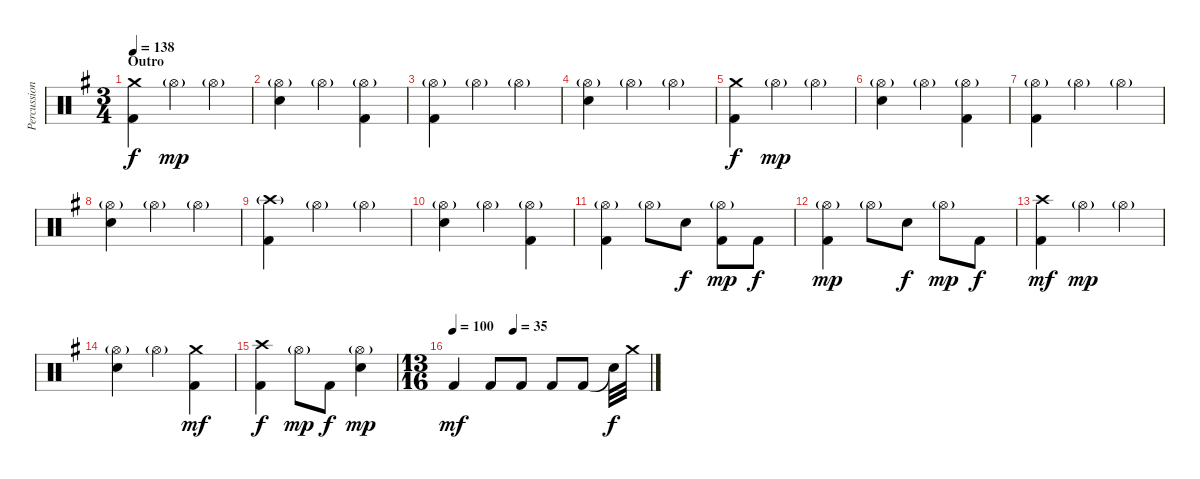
\track ("Percussion (Thomen Stauch)" "Percussion") {instrument percussion}
\staff {score}
\articulation defaults
\ts (3 4)
\section ("" "Outro")
\tempo 138
\clef neutral
\ks eminor
("Crash medium (hit)" "Kick (hit) 2").4{dy f} "Hi-Hat (open)"{g}.4{dy mp} "Hi-Hat (open)"{g}.4 |
("Hi-Hat (open)"{g} "Snare (hit) 2").4 "Hi-Hat (open)"{g}.4 ("Hi-Hat (open)"{g} "Kick (hit) 2").4 |
("Hi-Hat (open)"{g} "Kick (hit) 2").4 "Hi-Hat (open)"{g}.4 "Hi-Hat (open)"{g}.4 |
("Hi-Hat (open)"{g} "Snare (hit) 2").4 "Hi-Hat (open)"{g}.4 "Hi-Hat (open)"{g}.4 |
("Crash medium (hit)" "Kick (hit) 2").4{dy f} "Hi-Hat (open)"{g}.4{dy mp} "Hi-Hat (open)"{g}.4 |
("Hi-Hat (open)"{g} "Snare (hit) 2").4 "Hi-Hat (open)"{g}.4 ("Hi-Hat (open)"{g} "Kick (hit) 2").4 |
("Hi-Hat (open)"{g} "Kick (hit) 2").4 "Hi-Hat (open)"{g}.4 "Hi-Hat (open)"{g}.4 |
("Hi-Hat (open)"{g} "Snare (hit) 2").4 "Hi-Hat (open)"{g}.4 "Hi-Hat (open)"{g}.4 |
("Crash high (hit)"{g} "Kick (hit) 2").4 "Hi-Hat (open)"{g}.4 "Hi-Hat (open)"{g}.4 |
("Hi-Hat (open)"{g} "Snare (hit) 2").4 "Hi-Hat (open)"{g}.4 ("Hi-Hat (open)"{g} "Kick (hit) 2").4 |
("Hi-Hat (open)"{g} "Kick (hit) 2").4 "Hi-Hat (open)"{g}.8 "Snare (hit) 2".8{dy f} ("Hi-Hat (open)"{g} "Kick (hit) 2").8{dy mp} "Kick (hit) 2".8{dy f} |
("Hi-Hat (open)"{g} "Kick (hit) 2").4{dy mp} "Hi-Hat (open)"{g}.8 "Snare (hit) 2".8{dy f} "Hi-Hat (open)"{g}.8{dy mp} "Kick (hit) 2".8{dy f} |
("Crash high (hit)" "Kick (hit) 2").4{dy mf} "Hi-Hat (open)"{g}.4{dy mp} "Hi-Hat (open)"{g}.4 |
("Hi-Hat (open)"{g} "Snare (hit) 2").4 "Hi-Hat (open)"{g}.4 ("Crash medium (hit)" "Kick (hit) 2").4{dy mf} |
("Crash high (hit)" "Kick (hit) 2").4{dy f} "Hi-Hat (open)"{g}.8{dy mp} "Kick (hit) 2".8{dy f} ("Hi-Hat (open)"{g} "Snare (hit) 2").4{dy mp} |
\ts (13 16)
\tempo 100
\tempo (35 0.3076923076923077)
"Kick (hit) 2".4{dy mf} "Kick (hit) 2".8 "Kick (hit) 2".8 "Kick (hit) 2".8 "Kick (hit) 2".8 "Snare (hit)"{t}.32{dy f} "Crash medium (hit)".32
